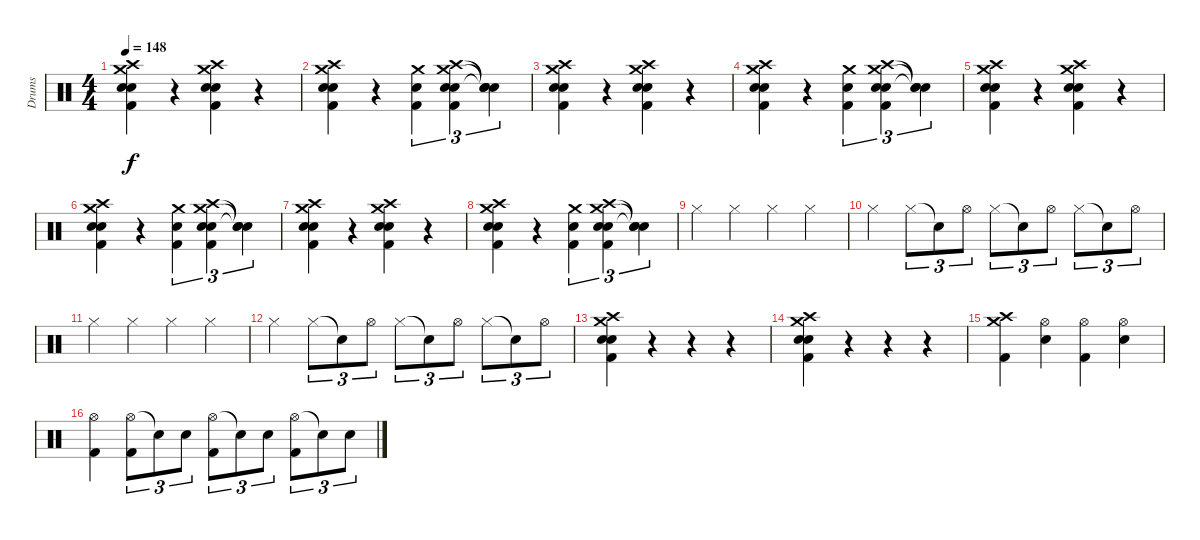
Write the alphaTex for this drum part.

\track ("Drums" "Drums") {instrument percussion}
\staff {score}
\articulation defaults
\ts (4 4)
\tempo 148
\clef neutral
\ks c
("Crash high (hit)" "Crash medium (hit)" "Snare (hit) 2" "Kick (hit) 2" "Snare (hit) 2").4{dy f} r.4 ("Crash high (hit)" "Crash medium (hit)" "Snare (hit) 2" "Kick (hit) 2" "Snare (hit) 2").4 r.4 |
("Crash high (hit)" "Crash medium (hit)" "Snare (hit) 2" "Kick (hit) 2" "Snare (hit) 2").4 r.4 ("Crash medium (hit)" "Kick (hit) 2" "Snare (hit) 2").4{tu (3 2)} ("Crash high (hit)" "Crash medium (hit)" "Snare (hit) 2" "Kick (hit) 2" "Snare (hit) 2").4{tu (3 2)} ("Snare (hit)"{t} "Snare (hit)"{t} "Snare (hit)"{t}).4{tu (3 2)} |
("Crash high (hit)" "Crash medium (hit)" "Snare (hit) 2" "Kick (hit) 2" "Snare (hit) 2").4 r.4 ("Crash high (hit)" "Crash medium (hit)" "Snare (hit) 2" "Kick (hit) 2" "Snare (hit) 2").4 r.4 |
("Crash high (hit)" "Crash medium (hit)" "Snare (hit) 2" "Kick (hit) 2" "Snare (hit) 2").4 r.4 ("Crash medium (hit)" "Kick (hit) 2" "Snare (hit) 2").4{tu (3 2)} ("Crash high (hit)" "Crash medium (hit)" "Snare (hit) 2" "Kick (hit) 2" "Snare (hit) 2").4{tu (3 2)} ("Snare (hit)"{t} "Snare (hit)"{t} "Snare (hit)"{t}).4{tu (3 2)} |
("Crash high (hit)" "Crash medium (hit)" "Snare (hit) 2" "Kick (hit) 2" "Snare (hit) 2").4 r.4 ("Crash high (hit)" "Crash medium (hit)" "Snare (hit) 2" "Kick (hit) 2" "Snare (hit) 2").4 r.4 |
("Crash high (hit)" "Crash medium (hit)" "Snare (hit) 2" "Kick (hit) 2" "Snare (hit) 2").4 r.4 ("Crash medium (hit)" "Kick (hit) 2" "Snare (hit) 2").4{tu (3 2)} ("Crash high (hit)" "Crash medium (hit)" "Snare (hit) 2" "Kick (hit) 2" "Snare (hit) 2").4{tu (3 2)} ("Snare (hit)"{t} "Snare (hit)"{t} "Snare (hit)"{t}).4{tu (3 2)} |
("Crash high (hit)" "Crash medium (hit)" "Snare (hit) 2" "Kick (hit) 2" "Snare (hit) 2").4 r.4 ("Crash high (hit)" "Crash medium (hit)" "Snare (hit) 2" "Kick (hit) 2" "Snare (hit) 2").4 r.4 |
("Crash high (hit)" "Crash medium (hit)" "Snare (hit) 2" "Kick (hit) 2" "Snare (hit) 2").4 r.4 ("Crash medium (hit)" "Kick (hit) 2" "Snare (hit) 2").4{tu (3 2)} ("Crash high (hit)" "Crash medium (hit)" "Snare (hit) 2" "Kick (hit) 2" "Snare (hit) 2").4{tu (3 2)} ("Snare (hit)"{t} "Snare (hit)"{t} "Snare (hit)"{t}).4{tu (3 2)} |
"Hi-Hat (closed)".4 "Hi-Hat (closed)".4 "Hi-Hat (closed)".4 "Hi-Hat (closed)".4 |
"Hi-Hat (closed)".4 "Hi-Hat (closed)".8{tu (3 2)} "Snare (hit)"{t}.8{tu (3 2)} "Hi-Hat (open)".8{tu (3 2)} "Hi-Hat (closed)".8{tu (3 2)} "Snare (hit)"{t}.8{tu (3 2)} "Hi-Hat (open)".8{tu (3 2)} "Hi-Hat (closed)".8{tu (3 2)} "Snare (hit)"{t}.8{tu (3 2)} "Hi-Hat (open)".8{tu (3 2)} |
"Hi-Hat (closed)".4 "Hi-Hat (closed)".4 "Hi-Hat (closed)".4 "Hi-Hat (closed)".4 |
"Hi-Hat (closed)".4 "Hi-Hat (closed)".8{tu (3 2)} "Snare (hit)"{t}.8{tu (3 2)} "Hi-Hat (open)".8{tu (3 2)} "Hi-Hat (closed)".8{tu (3 2)} "Snare (hit)"{t}.8{tu (3 2)} "Hi-Hat (open)".8{tu (3 2)} "Hi-Hat (closed)".8{tu (3 2)} "Snare (hit)"{t}.8{tu (3 2)} "Hi-Hat (open)".8{tu (3 2)} |
("Crash medium (hit)" "Snare (hit) 2" "Snare (hit) 2" "Kick (hit) 2" "Crash high (hit)").4 r.4 r.4 r.4 |
("Crash medium (hit)" "Snare (hit) 2" "Snare (hit) 2" "Kick (hit) 2" "Crash high (hit)").4 r.4 r.4 r.4 |
("Crash high (hit)" "Crash medium (hit)" "Kick (hit) 2").4 ("Hi-Hat (open)" "Snare (hit) 2").4 ("Hi-Hat (open)" "Kick (hit) 2").4 ("Hi-Hat (open)" "Snare (hit) 2").4 |
("Hi-Hat (open)" "Kick (hit) 2").4 ("Hi-Hat (open)" "Kick (hit) 2").8{tu (3 2)} "Snare (hit)"{t}.8{tu (3 2)} "Snare (hit) 2".8{tu (3 2)} ("Hi-Hat (open)" "Kick (hit) 2").8{tu (3 2)} "Snare (hit)"{t}.8{tu (3 2)} "Snare (hit) 2".8{tu (3 2)} ("Hi-Hat (open)" "Kick (hit) 2").8{tu (3 2)} "Snare (hit) 2"{t}.8{tu (3 2)} "Snare (hit) 2".8{tu (3 2)}
